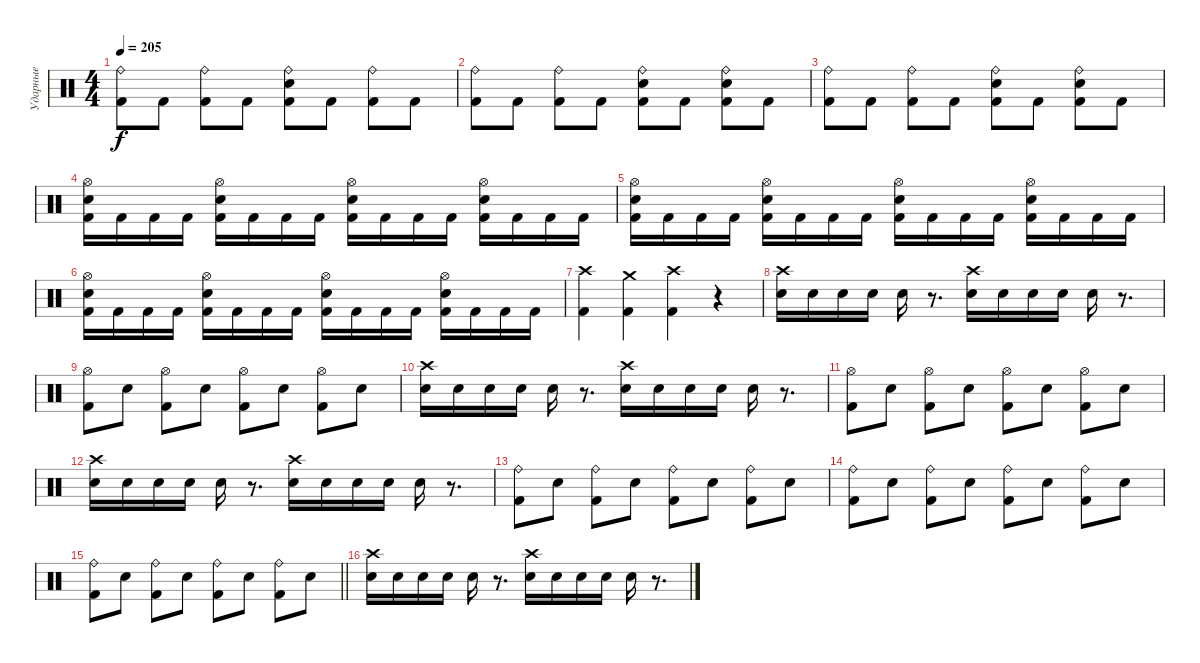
\track ("Ударные" "Ударные") {instrument percussion}
\staff {score}
\articulation defaults
\ts (4 4)
\tempo 205
\clef neutral
\ks c
("Ride (bell)" "Kick (hit) 2").8{dy f} "Kick (hit) 2".8 ("Ride (bell)" "Kick (hit) 2").8 "Kick (hit) 2".8 ("Ride (bell)" "Electric Snare (hit)" "Kick (hit) 2").8 "Kick (hit) 2".8 ("Ride (bell)" "Kick (hit) 2").8 "Kick (hit) 2".8 |
("Ride (bell)" "Kick (hit) 2").8 "Kick (hit) 2".8 ("Ride (bell)" "Kick (hit) 2").8 "Kick (hit) 2".8 ("Ride (bell)" "Electric Snare (hit)" "Kick (hit) 2").8 "Kick (hit) 2".8 ("Ride (bell)" "Electric Snare (hit)" "Kick (hit) 2").8 "Kick (hit) 2".8 |
("Ride (bell)" "Kick (hit) 2").8 "Kick (hit) 2".8 ("Ride (bell)" "Kick (hit) 2").8 "Kick (hit) 2".8 ("Ride (bell)" "Electric Snare (hit)" "Kick (hit) 2").8 "Kick (hit) 2".8 ("Ride (bell)" "Electric Snare (hit)" "Kick (hit) 2").8 "Kick (hit) 2".8 |
("Hi-Hat (open)" "Electric Snare (hit)" "Kick (hit) 2").16 "Kick (hit) 2".16 "Kick (hit) 2".16 "Kick (hit) 2".16 ("Hi-Hat (open)" "Electric Snare (hit)" "Kick (hit) 2").16 "Kick (hit) 2".16 "Kick (hit) 2".16 "Kick (hit) 2".16 ("Hi-Hat (open)" "Electric Snare (hit)" "Kick (hit) 2").16 "Kick (hit) 2".16 "Kick (hit) 2".16 "Kick (hit) 2".16 ("Hi-Hat (open)" "Electric Snare (hit)" "Kick (hit) 2").16 "Kick (hit) 2".16 "Kick (hit) 2".16 "Kick (hit) 2".16 |
("Hi-Hat (open)" "Electric Snare (hit)" "Kick (hit) 2").16 "Kick (hit) 2".16 "Kick (hit) 2".16 "Kick (hit) 2".16 ("Hi-Hat (open)" "Electric Snare (hit)" "Kick (hit) 2").16 "Kick (hit) 2".16 "Kick (hit) 2".16 "Kick (hit) 2".16 ("Hi-Hat (open)" "Electric Snare (hit)" "Kick (hit) 2").16 "Kick (hit) 2".16 "Kick (hit) 2".16 "Kick (hit) 2".16 ("Hi-Hat (open)" "Electric Snare (hit)" "Kick (hit) 2").16 "Kick (hit) 2".16 "Kick (hit) 2".16 "Kick (hit) 2".16 |
("Hi-Hat (open)" "Electric Snare (hit)" "Kick (hit) 2").16 "Kick (hit) 2".16 "Kick (hit) 2".16 "Kick (hit) 2".16 ("Hi-Hat (open)" "Electric Snare (hit)" "Kick (hit) 2").16 "Kick (hit) 2".16 "Kick (hit) 2".16 "Kick (hit) 2".16 ("Hi-Hat (open)" "Electric Snare (hit)" "Kick (hit) 2").16 "Kick (hit) 2".16 "Kick (hit) 2".16 "Kick (hit) 2".16 ("Hi-Hat (open)" "Electric Snare (hit)" "Kick (hit) 2").16 "Kick (hit) 2".16 "Kick (hit) 2".16 "Kick (hit) 2".16 |
("Crash high (hit)" "Kick (hit) 2").4 ("Crash medium (hit)" "Kick (hit) 2").4 ("Crash high (hit)" "Kick (hit) 2").4 r.4 |
("Crash high (hit)" "Snare (hit) 2").16 "Snare (hit) 2".16 "Snare (hit) 2".16 "Snare (hit) 2".16 "Snare (hit) 2".16 r.8{d} ("Crash high (hit)" "Snare (hit) 2").16 "Snare (hit) 2".16 "Snare (hit) 2".16 "Snare (hit) 2".16 "Snare (hit) 2".16 r.8{d} |
("Hi-Hat (open)" "Kick (hit) 2").8 "Snare (hit) 2".8 ("Hi-Hat (open)" "Kick (hit) 2").8 "Snare (hit) 2".8 ("Hi-Hat (open)" "Kick (hit) 2").8 "Snare (hit) 2".8 ("Hi-Hat (open)" "Kick (hit) 2").8 "Snare (hit) 2".8 |
("Crash high (hit)" "Snare (hit) 2").16 "Snare (hit) 2".16 "Snare (hit) 2".16 "Snare (hit) 2".16 "Snare (hit) 2".16 r.8{d} ("Crash high (hit)" "Snare (hit) 2").16 "Snare (hit) 2".16 "Snare (hit) 2".16 "Snare (hit) 2".16 "Snare (hit) 2".16 r.8{d} |
("Hi-Hat (open)" "Kick (hit) 2").8 "Snare (hit) 2".8 ("Hi-Hat (open)" "Kick (hit) 2").8 "Snare (hit) 2".8 ("Hi-Hat (open)" "Kick (hit) 2").8 "Snare (hit) 2".8 ("Hi-Hat (open)" "Kick (hit) 2").8 "Snare (hit) 2".8 |
("Crash high (hit)" "Snare (hit) 2").16 "Snare (hit) 2".16 "Snare (hit) 2".16 "Snare (hit) 2".16 "Snare (hit) 2".16 r.8{d} ("Crash high (hit)" "Snare (hit) 2").16 "Snare (hit) 2".16 "Snare (hit) 2".16 "Snare (hit) 2".16 "Snare (hit) 2".16 r.8{d} |
("Ride (bell)" "Kick (hit) 2").8 "Snare (hit) 2".8 ("Ride (bell)" "Kick (hit) 2").8 "Snare (hit) 2".8 ("Ride (bell)" "Kick (hit) 2").8 "Snare (hit) 2".8 ("Ride (bell)" "Kick (hit) 2").8 "Snare (hit) 2".8 |
("Ride (bell)" "Kick (hit) 2").8 "Snare (hit) 2".8 ("Ride (bell)" "Kick (hit) 2").8 "Snare (hit) 2".8 ("Ride (bell)" "Kick (hit) 2").8 "Snare (hit) 2".8 ("Ride (bell)" "Kick (hit) 2").8 "Snare (hit) 2".8 |
\barLineRight lightlight
("Ride (bell)" "Kick (hit) 2").8 "Snare (hit) 2".8 ("Ride (bell)" "Kick (hit) 2").8 "Snare (hit) 2".8 ("Ride (bell)" "Kick (hit) 2").8 "Snare (hit) 2".8 ("Ride (bell)" "Kick (hit) 2").8 "Snare (hit) 2".8 |
("Crash high (hit)" "Snare (hit) 2").16 "Snare (hit) 2".16 "Snare (hit) 2".16 "Snare (hit) 2".16 "Snare (hit) 2".16 r.8{d} ("Crash high (hit)" "Snare (hit) 2").16 "Snare (hit) 2".16 "Snare (hit) 2".16 "Snare (hit) 2".16 "Snare (hit) 2".16 r.8{d}
